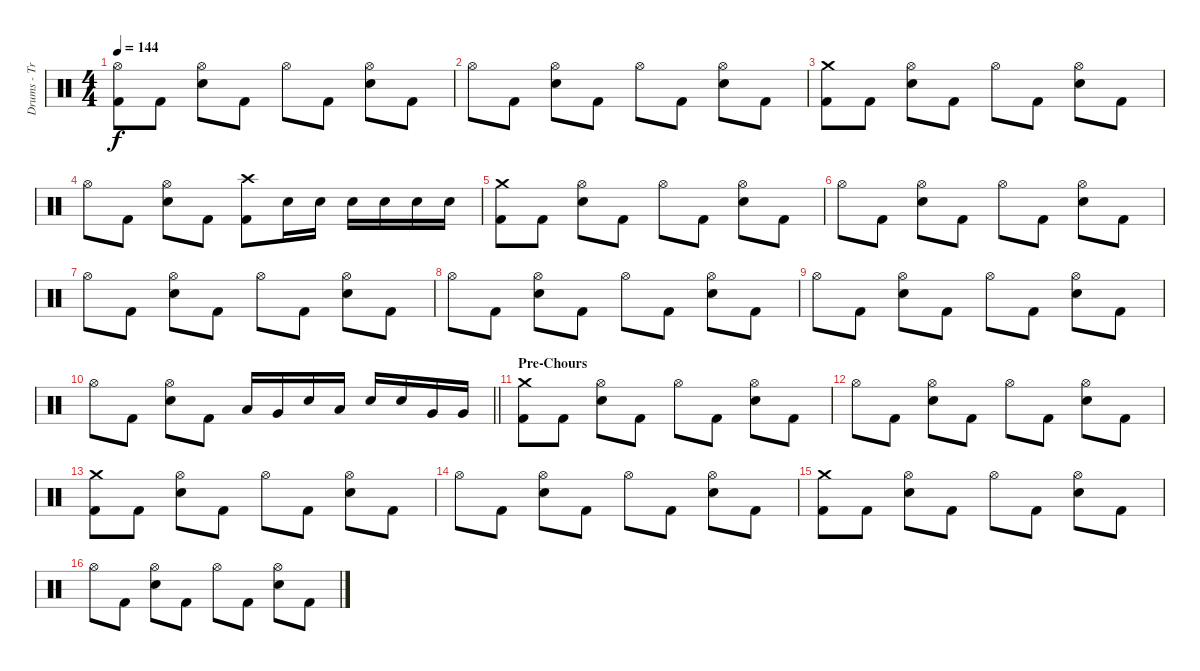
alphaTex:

\track ("Drums - Tre Cool" "Drums - Tr") {instrument percussion}
\staff {score}
\articulation defaults
\ts (4 4)
\tempo 144
\clef neutral
\ks c
("Hi-Hat (open)" "Kick (hit) 2").8{dy f} "Kick (hit) 2".8 ("Hi-Hat (open)" "Snare (hit) 2").8 "Kick (hit) 2".8 "Hi-Hat (open)".8 "Kick (hit) 2".8 ("Hi-Hat (open)" "Snare (hit) 2").8 "Kick (hit) 2".8 |
"Hi-Hat (open)".8 "Kick (hit) 2".8 ("Hi-Hat (open)" "Snare (hit) 2").8 "Kick (hit) 2".8 "Hi-Hat (open)".8 "Kick (hit) 2".8 ("Hi-Hat (open)" "Snare (hit) 2").8 "Kick (hit) 2".8 |
("Crash medium (hit)" "Kick (hit) 2").8 "Kick (hit) 2".8 ("Hi-Hat (open)" "Snare (hit) 2").8 "Kick (hit) 2".8 "Hi-Hat (open)".8 "Kick (hit) 2".8 ("Hi-Hat (open)" "Snare (hit) 2").8 "Kick (hit) 2".8 |
"Hi-Hat (open)".8 "Kick (hit) 2".8 ("Hi-Hat (open)" "Snare (hit) 2").8 "Kick (hit) 2".8 ("Crash high (hit)" "Kick (hit) 2").8 "Snare (hit) 2".16 "Snare (hit) 2".16 "Snare (hit) 2".16 "Snare (hit) 2".16 "Snare (hit) 2".16 "Snare (hit) 2".16 |
("Crash medium (hit)" "Kick (hit) 2").8 "Kick (hit) 2".8 ("Hi-Hat (open)" "Snare (hit) 2").8 "Kick (hit) 2".8 "Hi-Hat (open)".8 "Kick (hit) 2".8 ("Hi-Hat (open)" "Snare (hit) 2").8 "Kick (hit) 2".8 |
"Hi-Hat (open)".8 "Kick (hit) 2".8 ("Hi-Hat (open)" "Snare (hit) 2").8 "Kick (hit) 2".8 "Hi-Hat (open)".8 "Kick (hit) 2".8 ("Hi-Hat (open)" "Snare (hit) 2").8 "Kick (hit) 2".8 |
"Hi-Hat (open)".8 "Kick (hit) 2".8 ("Hi-Hat (open)" "Snare (hit) 2").8 "Kick (hit) 2".8 "Hi-Hat (open)".8 "Kick (hit) 2".8 ("Hi-Hat (open)" "Snare (hit) 2").8 "Kick (hit) 2".8 |
"Hi-Hat (open)".8 "Kick (hit) 2".8 ("Hi-Hat (open)" "Snare (hit) 2").8 "Kick (hit) 2".8 "Hi-Hat (open)".8 "Kick (hit) 2".8 ("Hi-Hat (open)" "Snare (hit) 2").8 "Kick (hit) 2".8 |
"Hi-Hat (open)".8 "Kick (hit) 2".8 ("Hi-Hat (open)" "Snare (hit) 2").8 "Kick (hit) 2".8 "Hi-Hat (open)".8 "Kick (hit) 2".8 ("Hi-Hat (open)" "Snare (hit) 2").8 "Kick (hit) 2".8 |
\barLineRight lightlight "Hi-Hat (open)".8 "Kick (hit) 2".8
("Hi-Hat (open)" "Snare (hit) 2").8 "Kick (hit) 2".8 "Low Floor Tom (hit)".16 "Very Low Tom (hit)".16 "Snare (hit) 2".16 "Low Floor Tom (hit)".16 "Snare (hit) 2".16 "Snare (hit) 2".16 "Very Low Tom (hit)".16 "Very Low Tom (hit)".16 |
\section ("" "Pre-Chours")
("Crash medium (hit)" "Kick (hit) 2").8 "Kick (hit) 2".8 ("Hi-Hat (open)" "Snare (hit) 2").8 "Kick (hit) 2".8 "Hi-Hat (open)".8 "Kick (hit) 2".8 ("Hi-Hat (open)" "Snare (hit) 2").8 "Kick (hit) 2".8 |
"Hi-Hat (open)".8 "Kick (hit) 2".8 ("Hi-Hat (open)" "Snare (hit) 2").8 "Kick (hit) 2".8 "Hi-Hat (open)".8 "Kick (hit) 2".8 ("Hi-Hat (open)" "Snare (hit) 2").8 "Kick (hit) 2".8 |
("Crash medium (hit)" "Kick (hit) 2").8 "Kick (hit) 2".8 ("Hi-Hat (open)" "Snare (hit) 2").8 "Kick (hit) 2".8 "Hi-Hat (open)".8 "Kick (hit) 2".8 ("Hi-Hat (open)" "Snare (hit) 2").8 "Kick (hit) 2".8 |
"Hi-Hat (open)".8 "Kick (hit) 2".8 ("Hi-Hat (open)" "Snare (hit) 2").8 "Kick (hit) 2".8 "Hi-Hat (open)".8 "Kick (hit) 2".8 ("Hi-Hat (open)" "Snare (hit) 2").8 "Kick (hit) 2".8 |
("Crash medium (hit)" "Kick (hit) 2").8 "Kick (hit) 2".8 ("Hi-Hat (open)" "Snare (hit) 2").8 "Kick (hit) 2".8 "Hi-Hat (open)".8 "Kick (hit) 2".8 ("Hi-Hat (open)" "Snare (hit) 2").8 "Kick (hit) 2".8 |
"Hi-Hat (open)".8 "Kick (hit) 2".8 ("Hi-Hat (open)" "Snare (hit) 2").8 "Kick (hit) 2".8 "Hi-Hat (open)".8 "Kick (hit) 2".8 ("Hi-Hat (open)" "Snare (hit) 2").8 "Kick (hit) 2".8
